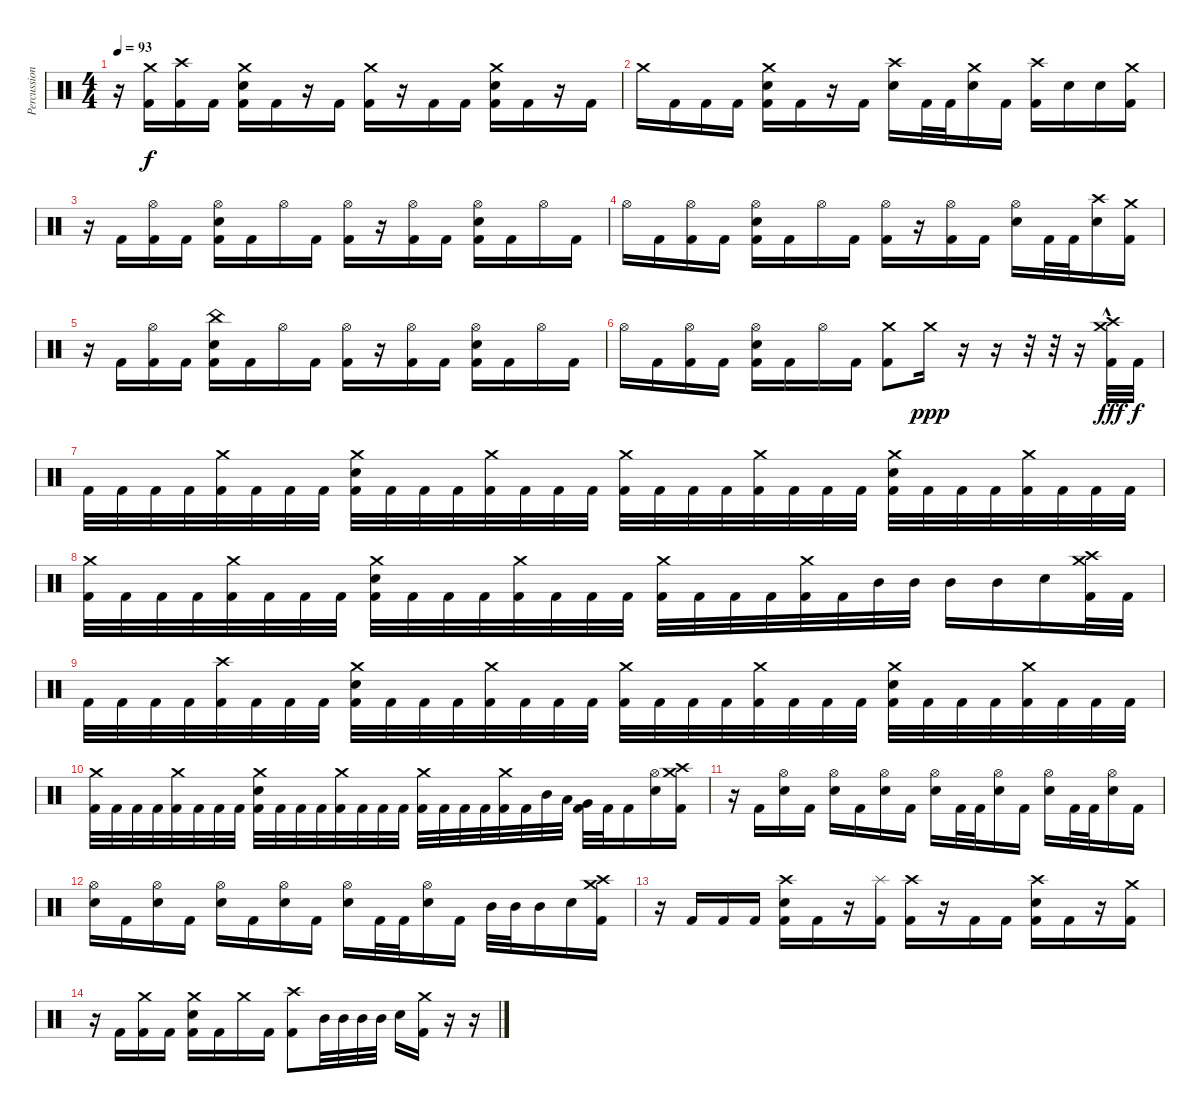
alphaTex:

\track ("Percussion" "Percussion") {instrument percussion}
\staff {score}
\articulation defaults
\ts (4 4)
\tempo 93
\clef neutral
\ks c
r.16{dy f} ("Crash medium (hit)" "Kick (hit) 2").16 ("Crash high (hit)" "Kick (hit) 2").16 "Kick (hit) 2".16 ("Crash medium (hit)" "Electric Snare (hit)" "Kick (hit) 2").16 "Kick (hit) 2".16 r.16 "Kick (hit) 2".16 ("Crash medium (hit)" "Kick (hit) 2").16 r.16 "Kick (hit) 2".16 "Kick (hit) 2".16 ("Crash medium (hit)" "Electric Snare (hit)" "Kick (hit) 2").16 "Kick (hit) 2".16 r.16 "Kick (hit) 2".16 |
"Crash medium (hit)".16 "Kick (hit) 2".16 "Kick (hit) 2".16 "Kick (hit) 2".16 ("Crash medium (hit)" "Electric Snare (hit)" "Kick (hit) 2").16 "Kick (hit) 2".16 r.16 "Kick (hit) 2".16 ("Crash high (hit)" "Electric Snare (hit)").16 "Kick (hit) 2".32 "Kick (hit) 2".32 ("Crash medium (hit)" "Electric Snare (hit)").16 "Kick (hit) 2".16 ("Crash high (hit)" "Kick (hit) 2").16 "Electric Snare (hit)".16 "Electric Snare (hit)".16 ("Crash medium (hit)" "Kick (hit) 2").16 |
r.16 "Kick (hit) 2".16 ("Hi-Hat (open)" "Kick (hit) 2").16 "Kick (hit) 2".16 ("Hi-Hat (open)" "Electric Snare (hit)" "Kick (hit) 2").16 "Kick (hit) 2".16 "Hi-Hat (open)".16 "Kick (hit) 2".16 ("Hi-Hat (open)" "Kick (hit) 2").16 r.16 ("Hi-Hat (open)" "Kick (hit) 2").16 "Kick (hit) 2".16 ("Hi-Hat (open)" "Electric Snare (hit)" "Kick (hit) 2").16 "Kick (hit) 2".16 "Hi-Hat (open)".16 "Kick (hit) 2".16 |
"Hi-Hat (open)".16 "Kick (hit) 2".16 ("Hi-Hat (open)" "Kick (hit) 2").16 "Kick (hit) 2".16 ("Hi-Hat (open)" "Electric Snare (hit)" "Kick (hit) 2").16 "Kick (hit) 2".16 "Hi-Hat (open)".16 "Kick (hit) 2".16 ("Hi-Hat (open)" "Kick (hit) 2").16 r.16 ("Hi-Hat (open)" "Kick (hit) 2").16 "Kick (hit) 2".16 ("Hi-Hat (open)" "Electric Snare (hit)").16 "Kick (hit) 2".32 "Kick (hit) 2".32 ("Crash high (hit)" "Electric Snare (hit)").16 ("Crash medium (hit)" "Kick (hit) 2").16 |
r.16 "Kick (hit) 2".16 ("Hi-Hat (open)" "Kick (hit) 2").16 "Kick (hit) 2".16 ("China (hit)" "Electric Snare (hit)" "Kick (hit) 2").16 "Kick (hit) 2".16 "Hi-Hat (open)".16 "Kick (hit) 2".16 ("Hi-Hat (open)" "Kick (hit) 2").16 r.16 ("Hi-Hat (open)" "Kick (hit) 2").16 "Kick (hit) 2".16 ("Hi-Hat (open)" "Electric Snare (hit)" "Kick (hit) 2").16 "Kick (hit) 2".16 "Hi-Hat (open)".16 "Kick (hit) 2".16 |
"Hi-Hat (open)".16 "Kick (hit) 2".16 ("Hi-Hat (open)" "Kick (hit) 2").16 "Kick (hit) 2".16 ("Hi-Hat (open)" "Electric Snare (hit)" "Kick (hit) 2").16 "Kick (hit) 2".16 "Hi-Hat (open)".16 "Kick (hit) 2".16 ("Crash medium (hit)" "Kick (hit) 2").8 "Crash medium (hit)".16{dy ppp} r.16 r.16 r.32 r.32 r.16 ("Crash medium (hit)"{hac} "Crash high (hit)"{hac} "Kick (hit) 2"{hac}).32{dy fff} "Kick (hit) 2".32{dy f} |
"Kick (hit) 2".32 "Kick (hit) 2".32 "Kick (hit) 2".32 "Kick (hit) 2".32 ("Crash medium (hit)" "Kick (hit) 2").32 "Kick (hit) 2".32 "Kick (hit) 2".32 "Kick (hit) 2".32 ("Crash medium (hit)" "Electric Snare (hit)" "Kick (hit) 2").32 "Kick (hit) 2".32 "Kick (hit) 2".32 "Kick (hit) 2".32 ("Crash medium (hit)" "Kick (hit) 2").32 "Kick (hit) 2".32 "Kick (hit) 2".32 "Kick (hit) 2".32 ("Crash medium (hit)" "Kick (hit) 2").32 "Kick (hit) 2".32 "Kick (hit) 2".32 "Kick (hit) 2".32 ("Crash medium (hit)" "Kick (hit) 2").32 "Kick (hit) 2".32 "Kick (hit) 2".32 "Kick (hit) 2".32 ("Crash medium (hit)" "Electric Snare (hit)" "Kick (hit) 2").32 "Kick (hit) 2".32 "Kick (hit) 2".32 "Kick (hit) 2".32 ("Crash medium (hit)" "Kick (hit) 2").32 "Kick (hit) 2".32 "Kick (hit) 2".32 "Kick (hit) 2".32 |
("Crash medium (hit)" "Kick (hit) 2").32 "Kick (hit) 2".32 "Kick (hit) 2".32 "Kick (hit) 2".32 ("Crash medium (hit)" "Kick (hit) 2").32 "Kick (hit) 2".32 "Kick (hit) 2".32 "Kick (hit) 2".32 ("Crash medium (hit)" "Electric Snare (hit)" "Kick (hit) 2").32 "Kick (hit) 2".32 "Kick (hit) 2".32 "Kick (hit) 2".32 ("Crash medium (hit)" "Kick (hit) 2").32 "Kick (hit) 2".32 "Kick (hit) 2".32 "Kick (hit) 2".32 ("Crash medium (hit)" "Kick (hit) 2").32 "Kick (hit) 2".32 "Kick (hit) 2".32 "Kick (hit) 2".32 ("Crash medium (hit)" "Kick (hit) 2").32 "Kick (hit) 2".32 "Mid Tom (hit)".32 "Mid Tom (hit)".32 "Mid Tom (hit)".16 "Mid Tom (hit)".16 "Electric Snare (hit)".16 ("Crash medium (hit)" "Crash high (hit)" "Kick (hit) 2").32 "Kick (hit) 2".32 |
"Kick (hit) 2".32 "Kick (hit) 2".32 "Kick (hit) 2".32 "Kick (hit) 2".32 ("Crash high (hit)" "Kick (hit) 2").32 "Kick (hit) 2".32 "Kick (hit) 2".32 "Kick (hit) 2".32 ("Crash medium (hit)" "Electric Snare (hit)" "Kick (hit) 2").32 "Kick (hit) 2".32 "Kick (hit) 2".32 "Kick (hit) 2".32 ("Crash medium (hit)" "Kick (hit) 2").32 "Kick (hit) 2".32 "Kick (hit) 2".32 "Kick (hit) 2".32 ("Crash medium (hit)" "Kick (hit) 2").32 "Kick (hit) 2".32 "Kick (hit) 2".32 "Kick (hit) 2".32 ("Crash medium (hit)" "Kick (hit) 2").32 "Kick (hit) 2".32 "Kick (hit) 2".32 "Kick (hit) 2".32 ("Crash medium (hit)" "Electric Snare (hit)" "Kick (hit) 2").32 "Kick (hit) 2".32 "Kick (hit) 2".32 "Kick (hit) 2".32 ("Crash medium (hit)" "Kick (hit) 2").32 "Kick (hit) 2".32 "Kick (hit) 2".32 "Kick (hit) 2".32 |
("Crash medium (hit)" "Kick (hit) 2").32 "Kick (hit) 2".32 "Kick (hit) 2".32 "Kick (hit) 2".32 ("Crash medium (hit)" "Kick (hit) 2").32 "Kick (hit) 2".32 "Kick (hit) 2".32 "Kick (hit) 2".32 ("Crash medium (hit)" "Electric Snare (hit)" "Kick (hit) 2").32 "Kick (hit) 2".32 "Kick (hit) 2".32 "Kick (hit) 2".32 ("Crash medium (hit)" "Kick (hit) 2").32 "Kick (hit) 2".32 "Kick (hit) 2".32 "Kick (hit) 2".32 ("Crash medium (hit)" "Kick (hit) 2").32 "Kick (hit) 2".32 "Kick (hit) 2".32 "Kick (hit) 2".32 ("Crash medium (hit)" "Kick (hit) 2").32 "Kick (hit) 2".32 "Mid Tom (hit)".32 "Low Tom (hit)".32 ("Very Low Tom (hit)" "Kick (hit) 2").32 "Kick (hit) 2".32 "Kick (hit) 2".16 ("Hi-Hat (open)" "Electric Snare (hit)").16 ("Crash medium (hit)" "Crash high (hit)" "Kick (hit) 2").16 |
r.16 "Kick (hit) 2".16 ("Hi-Hat (open)" "Electric Snare (hit)").16 "Kick (hit) 2".16 ("Hi-Hat (open)" "Electric Snare (hit)").16 "Kick (hit) 2".16 ("Hi-Hat (open)" "Electric Snare (hit)").16 "Kick (hit) 2".16 ("Hi-Hat (open)" "Electric Snare (hit)").16 "Kick (hit) 2".32 "Kick (hit) 2".32 ("Hi-Hat (open)" "Electric Snare (hit)").16 "Kick (hit) 2".16 ("Hi-Hat (open)" "Electric Snare (hit)").16 "Kick (hit) 2".32 "Kick (hit) 2".32 ("Hi-Hat (open)" "Electric Snare (hit)").16 "Kick (hit) 2".16 |
("Hi-Hat (open)" "Electric Snare (hit)").16 "Kick (hit) 2".16 ("Hi-Hat (open)" "Electric Snare (hit)").16 "Kick (hit) 2".16 ("Hi-Hat (open)" "Electric Snare (hit)").16 "Kick (hit) 2".16 ("Hi-Hat (open)" "Electric Snare (hit)").16 "Kick (hit) 2".16 ("Hi-Hat (open)" "Electric Snare (hit)").16 "Kick (hit) 2".32 "Kick (hit) 2".32 ("Hi-Hat (open)" "Electric Snare (hit)").16 "Kick (hit) 2".16 "Mid Tom (hit)".32 "Mid Tom (hit)".32 "Mid Tom (hit)".16 "Electric Snare (hit)".16 ("Crash medium (hit)" "Crash high (hit)" "Kick (hit) 2").16 |
r.16 "Kick (hit) 2".16 "Kick (hit) 2".16 "Kick (hit) 2".16 ("Crash high (hit)" "Electric Snare (hit)" "Kick (hit) 2").16 "Kick (hit) 2".16 r.16 ("Splash (hit)" "Kick (hit) 2").16 ("Crash high (hit)" "Kick (hit) 2").16 r.16 "Kick (hit) 2".16 "Kick (hit) 2".16 ("Crash high (hit)" "Electric Snare (hit)" "Kick (hit) 2").16 "Kick (hit) 2".16 r.16 ("Crash medium (hit)" "Kick (hit) 2").16 |
r.16 "Kick (hit) 2".16 ("Crash medium (hit)" "Kick (hit) 2").16 "Kick (hit) 2".16 ("Crash medium (hit)" "Electric Snare (hit)" "Kick (hit) 2").16 "Kick (hit) 2".16 "Crash medium (hit)".16 "Kick (hit) 2".16 ("Crash high (hit)" "Kick (hit) 2").8 "Mid Tom (hit)".32 "Mid Tom (hit)".32 "Mid Tom (hit)".32 "Mid Tom (hit)".32 "Electric Snare (hit)".16 ("Crash medium (hit)" "Kick (hit) 2").16 r.16 r.16
